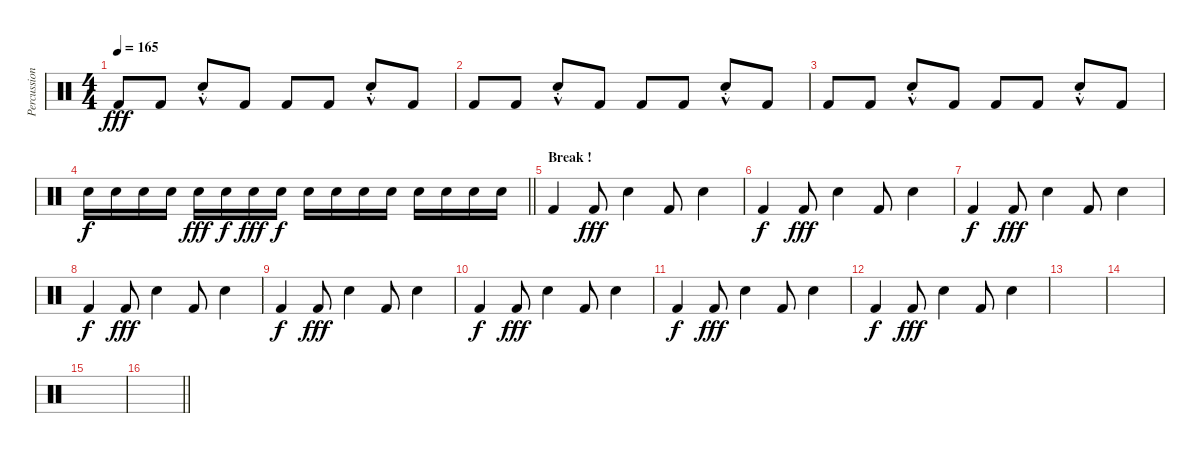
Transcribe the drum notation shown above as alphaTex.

\track ("Percussions" "Percussion") {instrument percussion}
\staff {score}
\articulation defaults
\ts (4 4)
\tempo 165
\clef neutral
\ks c "Kick (hit) 2".8{dy fff} "Kick (hit) 2".8 "Electric Snare (hit)"{hac st}.8 "Kick (hit) 2".8 "Kick (hit) 2".8 "Kick (hit) 2".8 "Electric Snare (hit)"{hac st}.8 "Kick (hit) 2".8
|
"Kick (hit) 2".8 "Kick (hit) 2".8 "Electric Snare (hit)"{hac st}.8 "Kick (hit) 2".8 "Kick (hit) 2".8 "Kick (hit) 2".8 "Electric Snare (hit)"{hac st}.8 "Kick (hit) 2".8 |
"Kick (hit) 2".8 "Kick (hit) 2".8 "Electric Snare (hit)"{hac st}.8 "Kick (hit) 2".8 "Kick (hit) 2".8 "Kick (hit) 2".8 "Electric Snare (hit)"{hac st}.8 "Kick (hit) 2".8 |
\barLineRight lightlight "Electric Snare (hit)".16{dy f} "Electric Snare (hit)".16 "Electric Snare (hit)".16 "Electric Snare (hit)".16 "Electric Snare (hit)".16{dy fff} "Electric Snare (hit)".16{dy f} "Electric Snare (hit)".16{dy fff} "Electric Snare (hit)".16{dy f} "Electric Snare (hit)".16 "Electric Snare (hit)".16 "Electric Snare (hit)".16 "Electric Snare (hit)".16 "Electric Snare (hit)".16 "Electric Snare (hit)".16 "Electric Snare (hit)".16 "Electric Snare (hit)".16
|
\section ("" "Break !")
"Kick (hit) 2".4 "Kick (hit) 2".8{dy fff} "Electric Snare (hit)".4 "Kick (hit) 2".8 "Electric Snare (hit)".4 |
"Kick (hit) 2".4{dy f} "Kick (hit) 2".8{dy fff} "Electric Snare (hit)".4 "Kick (hit) 2".8 "Electric Snare (hit)".4 |
"Kick (hit) 2".4{dy f} "Kick (hit) 2".8{dy fff} "Electric Snare (hit)".4 "Kick (hit) 2".8 "Electric Snare (hit)".4 |
"Kick (hit) 2".4{dy f} "Kick (hit) 2".8{dy fff} "Electric Snare (hit)".4 "Kick (hit) 2".8 "Electric Snare (hit)".4 |
"Kick (hit) 2".4{dy f} "Kick (hit) 2".8{dy fff} "Electric Snare (hit)".4 "Kick (hit) 2".8 "Electric Snare (hit)".4 |
"Kick (hit) 2".4{dy f} "Kick (hit) 2".8{dy fff} "Electric Snare (hit)".4 "Kick (hit) 2".8 "Electric Snare (hit)".4 |
"Kick (hit) 2".4{dy f} "Kick (hit) 2".8{dy fff} "Electric Snare (hit)".4 "Kick (hit) 2".8 "Electric Snare (hit)".4 |
"Kick (hit) 2".4{dy f} "Kick (hit) 2".8{dy fff} "Electric Snare (hit)".4 "Kick (hit) 2".8 "Electric Snare (hit)".4 |
|
|
|
\barLineRight lightlight
